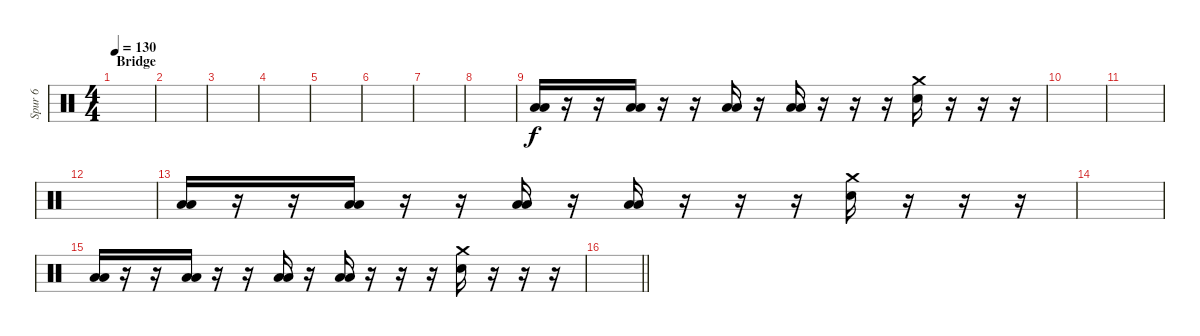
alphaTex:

\track ("Spur 6" "Spur 6") {instrument percussion}
\staff {score}
\articulation defaults
\ts (4 4)
\section ("" "Bridge")
\tempo 130
\clef neutral
\ks c
|
|
|
|
|
|
|
|
("Low Tom (hit)" "Low Floor Tom (hit)").16 r.16 r.16 ("Low Tom (hit)" "Low Floor Tom (hit)").16 r.16 r.16 ("Low Tom (hit)" "Low Floor Tom (hit)").16 r.16 ("Low Tom (hit)" "Low Floor Tom (hit)").16 r.16 r.16 r.16 ("Electric Snare (hit)" "Crash medium (hit)").16 r.16 r.16 r.16 |
|
|
|
("Low Tom (hit)" "Low Floor Tom (hit)").16 r.16 r.16 ("Low Tom (hit)" "Low Floor Tom (hit)").16 r.16 r.16 ("Low Tom (hit)" "Low Floor Tom (hit)").16 r.16 ("Low Tom (hit)" "Low Floor Tom (hit)").16 r.16 r.16 r.16 ("Electric Snare (hit)" "Crash medium (hit)").16 r.16 r.16 r.16 |
|
("Low Tom (hit)" "Low Floor Tom (hit)").16 r.16 r.16 ("Low Tom (hit)" "Low Floor Tom (hit)").16 r.16 r.16 ("Low Tom (hit)" "Low Floor Tom (hit)").16 r.16 ("Low Tom (hit)" "Low Floor Tom (hit)").16 r.16 r.16 r.16 ("Electric Snare (hit)" "Crash medium (hit)").16 r.16 r.16 r.16 |
\barLineRight lightlight
